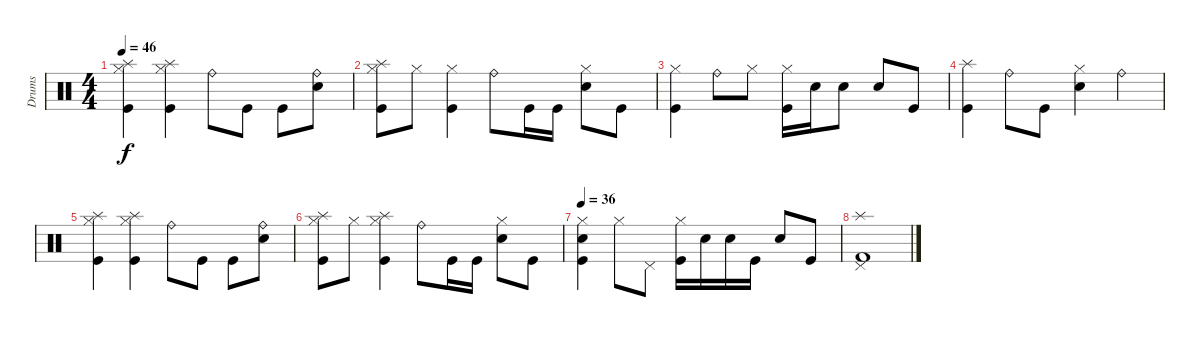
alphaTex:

\track ("Drums" "Drums") {instrument percussion}
\staff {score}
\articulation defaults
\ts (4 4)
\tempo 46
\clef neutral
\ks c
("Hi-Hat (closed)" "Kick (hit)" "Splash (hit)").4{dy f} ("Hi-Hat (closed)" "Kick (hit)" "Splash (hit)").4 "Ride (bell)".8 "Kick (hit)".8 "Kick (hit)".8 ("Ride (bell)" "Electric Snare (hit)").8 |
("Hi-Hat (closed)" "Kick (hit)" "Splash (hit)").8 "Hi-Hat (closed)".8 ("Hi-Hat (closed)" "Kick (hit)").4 "Ride (bell)".8 "Kick (hit)".16 "Kick (hit)".16 ("Hi-Hat (closed)" "Electric Snare (hit)").8 "Kick (hit)".8 |
("Hi-Hat (closed)" "Kick (hit)").4 "Ride (bell)".8 "Hi-Hat (closed)".8 ("Hi-Hat (closed)" "Kick (hit)").16 "Electric Snare (hit)".16 "Electric Snare (hit)".8 "Electric Snare (hit)".8 "Kick (hit)".8 |
("Kick (hit)" "Splash (hit)").4 "Ride (bell)".8 "Kick (hit)".8 ("Hi-Hat (closed)" "Electric Snare (hit)").4 "Ride (bell)".4 |
("Hi-Hat (closed)" "Kick (hit)" "Splash (hit)").4 ("Hi-Hat (closed)" "Kick (hit)" "Splash (hit)").4 "Ride (bell)".8 "Kick (hit)".8 "Kick (hit)".8 ("Ride (bell)" "Electric Snare (hit)").8 |
("Hi-Hat (closed)" "Kick (hit)" "Splash (hit)").8 "Hi-Hat (closed)".8 ("Hi-Hat (closed)" "Kick (hit)" "Splash (hit)").4 "Ride (bell)".8 "Kick (hit)".16 "Kick (hit)".16 ("Hi-Hat (closed)" "Electric Snare (hit)").8 "Kick (hit)".8 |
\tempo 36
("Hi-Hat (closed)" "Kick (hit)" "Electric Snare (hit)").4 "Hi-Hat (closed)".8 "Pedal Hi-Hat (hit)".8 ("Hi-Hat (closed)" "Kick (hit)").16 "Electric Snare (hit)".16 "Electric Snare (hit)".16 "Kick (hit)".16 "Electric Snare (hit)".8 "Kick (hit)".8 |
("Kick (hit) 2" "Pedal Hi-Hat (hit)" "Splash (hit)").1
